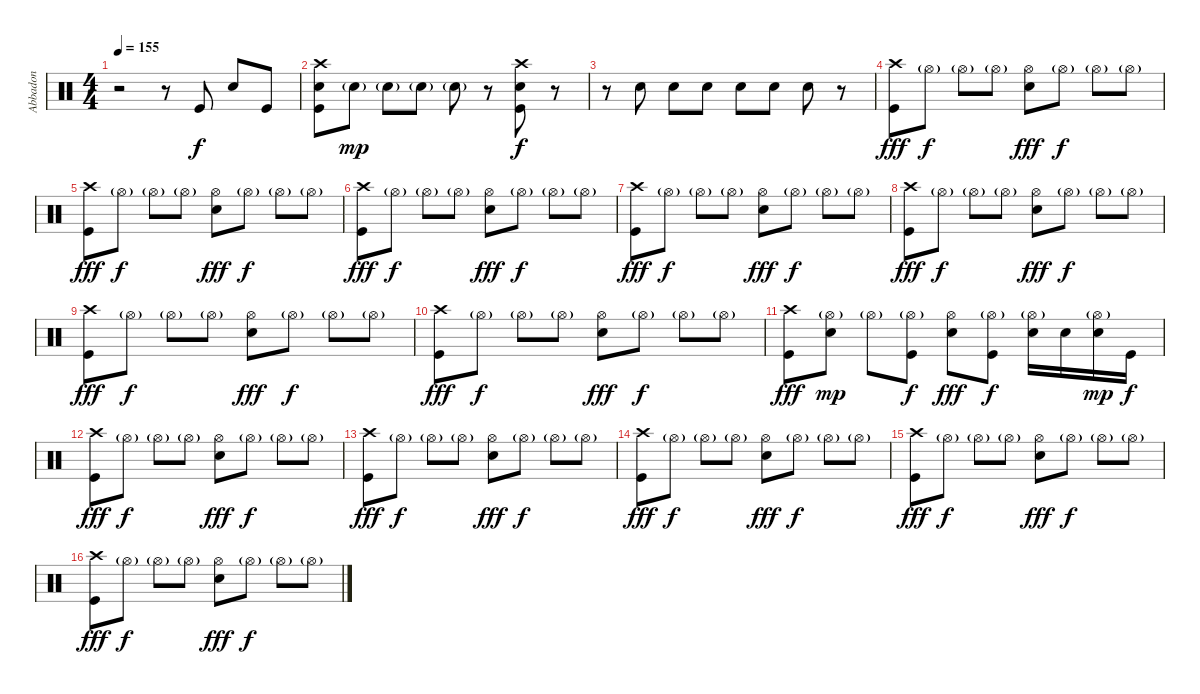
\track ("Abbadon" "Abbadon") {instrument percussion}
\staff {score}
\articulation defaults
\ts (4 4)
\tempo 155
\clef neutral
\ks c
r.2{dy f} r.8 "Kick (hit)".8 "Electric Snare (hit)".8 "Kick (hit)".8 |
("Crash high (hit)" "Electric Snare (hit)" "Kick (hit)").8 "Electric Snare (hit)"{g}.8{dy mp} "Electric Snare (hit)"{g}.8 "Electric Snare (hit)"{g}.8 "Electric Snare (hit)"{g}.8 r.8 ("Crash high (hit)" "Electric Snare (hit)" "Kick (hit)").8{dy f} r.8 |
r.8 "Electric Snare (hit)".8 "Electric Snare (hit)".8 "Electric Snare (hit)".8 "Electric Snare (hit)".8 "Electric Snare (hit)".8 "Electric Snare (hit)".8 r.8 |
("Crash high (hit)" "Kick (hit)").8{dy fff} "Hi-Hat (open)"{g}.8{dy f} "Hi-Hat (open)"{g}.8 "Hi-Hat (open)"{g}.8 ("Hi-Hat (open)" "Electric Snare (hit)").8{dy fff} "Hi-Hat (open)"{g}.8{dy f} "Hi-Hat (open)"{g}.8 "Hi-Hat (open)"{g}.8 |
("Crash high (hit)" "Kick (hit)").8{dy fff} "Hi-Hat (open)"{g}.8{dy f} "Hi-Hat (open)"{g}.8 "Hi-Hat (open)"{g}.8 ("Hi-Hat (open)" "Electric Snare (hit)").8{dy fff} "Hi-Hat (open)"{g}.8{dy f} "Hi-Hat (open)"{g}.8 "Hi-Hat (open)"{g}.8 |
("Crash high (hit)" "Kick (hit)").8{dy fff} "Hi-Hat (open)"{g}.8{dy f} "Hi-Hat (open)"{g}.8 "Hi-Hat (open)"{g}.8 ("Hi-Hat (open)" "Electric Snare (hit)").8{dy fff} "Hi-Hat (open)"{g}.8{dy f} "Hi-Hat (open)"{g}.8 "Hi-Hat (open)"{g}.8 |
("Crash high (hit)" "Kick (hit)").8{dy fff} "Hi-Hat (open)"{g}.8{dy f} "Hi-Hat (open)"{g}.8 "Hi-Hat (open)"{g}.8 ("Hi-Hat (open)" "Electric Snare (hit)").8{dy fff} "Hi-Hat (open)"{g}.8{dy f} "Hi-Hat (open)"{g}.8 "Hi-Hat (open)"{g}.8 |
("Crash high (hit)" "Kick (hit)").8{dy fff} "Hi-Hat (open)"{g}.8{dy f} "Hi-Hat (open)"{g}.8 "Hi-Hat (open)"{g}.8 ("Hi-Hat (open)" "Electric Snare (hit)").8{dy fff} "Hi-Hat (open)"{g}.8{dy f} "Hi-Hat (open)"{g}.8 "Hi-Hat (open)"{g}.8 |
("Crash high (hit)" "Kick (hit)").8{dy fff} "Hi-Hat (open)"{g}.8{dy f} "Hi-Hat (open)"{g}.8 "Hi-Hat (open)"{g}.8 ("Hi-Hat (open)" "Electric Snare (hit)").8{dy fff} "Hi-Hat (open)"{g}.8{dy f} "Hi-Hat (open)"{g}.8 "Hi-Hat (open)"{g}.8 |
("Crash high (hit)" "Kick (hit)").8{dy fff} "Hi-Hat (open)"{g}.8{dy f} "Hi-Hat (open)"{g}.8 "Hi-Hat (open)"{g}.8 ("Hi-Hat (open)" "Electric Snare (hit)").8{dy fff} "Hi-Hat (open)"{g}.8{dy f} "Hi-Hat (open)"{g}.8 "Hi-Hat (open)"{g}.8 |
("Crash high (hit)" "Kick (hit)").8{dy fff} ("Hi-Hat (open)"{g} "Electric Snare (hit)").8{dy mp} "Hi-Hat (open)"{g}.8 ("Hi-Hat (open)"{g} "Kick (hit)").8{dy f} ("Hi-Hat (open)" "Electric Snare (hit)").8{dy fff} ("Hi-Hat (open)"{g} "Kick (hit)").8{dy f} ("Hi-Hat (open)"{g} "Electric Snare (hit)").16 "Electric Snare (hit)".16 ("Hi-Hat (open)"{g} "Electric Snare (hit)").16{dy mp} "Kick (hit)".16{dy f} |
("Crash high (hit)" "Kick (hit)").8{dy fff} "Hi-Hat (open)"{g}.8{dy f} "Hi-Hat (open)"{g}.8 "Hi-Hat (open)"{g}.8 ("Hi-Hat (open)" "Electric Snare (hit)").8{dy fff} "Hi-Hat (open)"{g}.8{dy f} "Hi-Hat (open)"{g}.8 "Hi-Hat (open)"{g}.8 |
("Crash high (hit)" "Kick (hit)").8{dy fff} "Hi-Hat (open)"{g}.8{dy f} "Hi-Hat (open)"{g}.8 "Hi-Hat (open)"{g}.8 ("Hi-Hat (open)" "Electric Snare (hit)").8{dy fff} "Hi-Hat (open)"{g}.8{dy f} "Hi-Hat (open)"{g}.8 "Hi-Hat (open)"{g}.8 |
("Crash high (hit)" "Kick (hit)").8{dy fff} "Hi-Hat (open)"{g}.8{dy f} "Hi-Hat (open)"{g}.8 "Hi-Hat (open)"{g}.8 ("Hi-Hat (open)" "Electric Snare (hit)").8{dy fff} "Hi-Hat (open)"{g}.8{dy f} "Hi-Hat (open)"{g}.8 "Hi-Hat (open)"{g}.8 |
("Crash high (hit)" "Kick (hit)").8{dy fff} "Hi-Hat (open)"{g}.8{dy f} "Hi-Hat (open)"{g}.8 "Hi-Hat (open)"{g}.8 ("Hi-Hat (open)" "Electric Snare (hit)").8{dy fff} "Hi-Hat (open)"{g}.8{dy f} "Hi-Hat (open)"{g}.8 "Hi-Hat (open)"{g}.8 |
("Crash high (hit)" "Kick (hit)").8{dy fff} "Hi-Hat (open)"{g}.8{dy f} "Hi-Hat (open)"{g}.8 "Hi-Hat (open)"{g}.8 ("Hi-Hat (open)" "Electric Snare (hit)").8{dy fff} "Hi-Hat (open)"{g}.8{dy f} "Hi-Hat (open)"{g}.8 "Hi-Hat (open)"{g}.8
